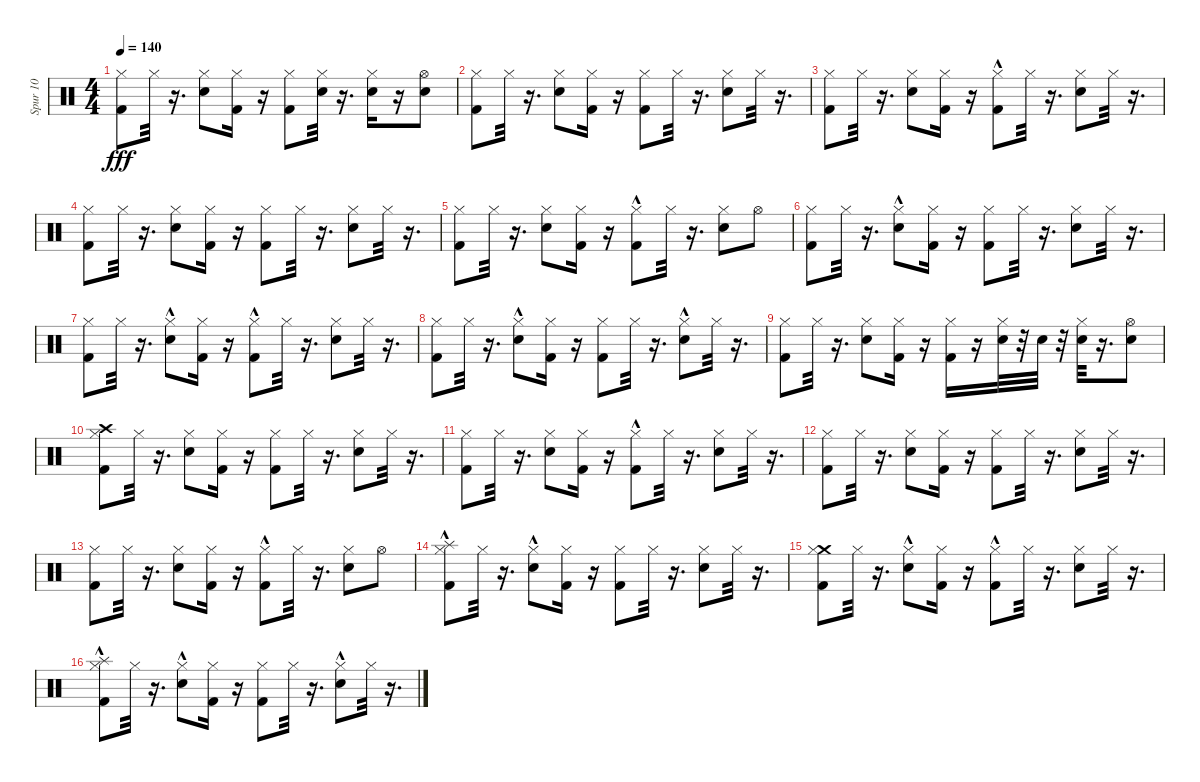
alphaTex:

\track ("Spur 10" "Spur 10") {instrument percussion}
\staff {score}
\articulation defaults
\ts (4 4)
\tempo 140
\clef neutral
\ks c
("Kick (hit) 2" "Hi-Hat (closed)").8{dy fff} "Hi-Hat (closed)".32 r.16{d} ("Snare (hit) 2" "Hi-Hat (closed)").8 ("Kick (hit) 2" "Hi-Hat (closed)").16 r.16 ("Kick (hit) 2" "Hi-Hat (closed)").8 ("Snare (hit) 2" "Hi-Hat (closed)").32 r.16{d} ("Snare (hit) 2" "Hi-Hat (closed)").16 r.16 ("Snare (hit) 2" "Hi-Hat (open)").8 |
("Kick (hit) 2" "Hi-Hat (closed)").8 "Hi-Hat (closed)".32 r.16{d} ("Snare (hit) 2" "Hi-Hat (closed)").8 ("Kick (hit) 2" "Hi-Hat (closed)").16 r.16 ("Kick (hit) 2" "Hi-Hat (closed)").8 "Hi-Hat (closed)".32 r.16{d} ("Snare (hit) 2" "Hi-Hat (closed)").8 "Hi-Hat (closed)".32 r.16{d} |
("Kick (hit) 2" "Hi-Hat (closed)").8 "Hi-Hat (closed)".32 r.16{d} ("Snare (hit) 2" "Hi-Hat (closed)").8 ("Kick (hit) 2" "Hi-Hat (closed)").16 r.16 ("Kick (hit) 2"{hac} "Hi-Hat (closed)").8 "Hi-Hat (closed)".32 r.16{d} ("Snare (hit) 2" "Hi-Hat (closed)").8 "Hi-Hat (closed)".32 r.16{d} |
("Kick (hit) 2" "Hi-Hat (closed)").8 "Hi-Hat (closed)".32 r.16{d} ("Snare (hit) 2" "Hi-Hat (closed)").8 ("Kick (hit) 2" "Hi-Hat (closed)").16 r.16 ("Kick (hit) 2" "Hi-Hat (closed)").8 "Hi-Hat (closed)".32 r.16{d} ("Snare (hit) 2" "Hi-Hat (closed)").8 "Hi-Hat (closed)".32 r.16{d} |
("Kick (hit) 2" "Hi-Hat (closed)").8 "Hi-Hat (closed)".32 r.16{d} ("Snare (hit) 2" "Hi-Hat (closed)").8 ("Kick (hit) 2" "Hi-Hat (closed)").16 r.16 ("Kick (hit) 2"{hac} "Hi-Hat (closed)").8 "Hi-Hat (closed)".32 r.16{d} ("Snare (hit) 2" "Hi-Hat (closed)").8 "Hi-Hat (open)".8 |
("Kick (hit) 2" "Hi-Hat (closed)").8 "Hi-Hat (closed)".32 r.16{d} ("Snare (hit) 2"{hac} "Hi-Hat (closed)").8 ("Kick (hit) 2" "Hi-Hat (closed)").16 r.16 ("Kick (hit) 2" "Hi-Hat (closed)").8 "Hi-Hat (closed)".32 r.16{d} ("Snare (hit) 2" "Hi-Hat (closed)").8 "Hi-Hat (closed)".32 r.16{d} |
("Kick (hit) 2" "Hi-Hat (closed)").8 "Hi-Hat (closed)".32 r.16{d} ("Snare (hit) 2"{hac} "Hi-Hat (closed)").8 ("Kick (hit) 2" "Hi-Hat (closed)").16 r.16 ("Kick (hit) 2"{hac} "Hi-Hat (closed)").8 "Hi-Hat (closed)".32 r.16{d} ("Snare (hit) 2" "Hi-Hat (closed)").8 "Hi-Hat (closed)".32 r.16{d} |
("Kick (hit) 2" "Hi-Hat (closed)").8 "Hi-Hat (closed)".32 r.16{d} ("Snare (hit) 2"{hac} "Hi-Hat (closed)").8 ("Kick (hit) 2" "Hi-Hat (closed)").16 r.16 ("Kick (hit) 2" "Hi-Hat (closed)").8 "Hi-Hat (closed)".32 r.16{d} ("Snare (hit) 2"{hac} "Hi-Hat (closed)").8 "Hi-Hat (closed)".32 r.16{d} |
("Kick (hit) 2" "Hi-Hat (closed)").8 "Hi-Hat (closed)".32 r.16{d} ("Snare (hit) 2" "Hi-Hat (closed)").8 ("Kick (hit) 2" "Hi-Hat (closed)").16 r.16 ("Kick (hit) 2" "Hi-Hat (closed)").16 r.16 ("Snare (hit) 2" "Hi-Hat (closed)").32 r.32 "Snare (hit) 2".32 r.32 ("Snare (hit) 2" "Hi-Hat (closed)").32 r.16{d} ("Snare (hit) 2" "Hi-Hat (open)").8 |
("Kick (hit) 2" "Hi-Hat (closed)" "Crash high (hit)").8{volume 8} "Hi-Hat (closed)".32 r.16{d} ("Snare (hit) 2" "Hi-Hat (closed)").8 ("Kick (hit) 2" "Hi-Hat (closed)").16 r.16 ("Kick (hit) 2" "Hi-Hat (closed)").8 "Hi-Hat (closed)".32 r.16{d} ("Snare (hit) 2" "Hi-Hat (closed)").8 "Hi-Hat (closed)".32 r.16{d} |
("Kick (hit) 2" "Hi-Hat (closed)").8 "Hi-Hat (closed)".32 r.16{d} ("Snare (hit) 2" "Hi-Hat (closed)").8 ("Kick (hit) 2" "Hi-Hat (closed)").16 r.16 ("Kick (hit) 2"{hac} "Hi-Hat (closed)").8 "Hi-Hat (closed)".32 r.16{d} ("Snare (hit) 2" "Hi-Hat (closed)").8 "Hi-Hat (closed)".32 r.16{d} |
("Kick (hit) 2" "Hi-Hat (closed)").8 "Hi-Hat (closed)".32 r.16{d} ("Snare (hit) 2" "Hi-Hat (closed)").8 ("Kick (hit) 2" "Hi-Hat (closed)").16 r.16 ("Kick (hit) 2" "Hi-Hat (closed)").8 "Hi-Hat (closed)".32 r.16{d} ("Snare (hit) 2" "Hi-Hat (closed)").8 "Hi-Hat (closed)".32 r.16{d} |
("Kick (hit) 2" "Hi-Hat (closed)").8 "Hi-Hat (closed)".32 r.16{d} ("Snare (hit) 2" "Hi-Hat (closed)").8 ("Kick (hit) 2" "Hi-Hat (closed)").16 r.16 ("Kick (hit) 2"{hac} "Hi-Hat (closed)").8 "Hi-Hat (closed)".32 r.16{d} ("Snare (hit) 2" "Hi-Hat (closed)").8 "Hi-Hat (open)".8 |
("Kick (hit) 2" "Splash (hit)"{hac} "Hi-Hat (closed)").8 "Hi-Hat (closed)".32 r.16{d} ("Snare (hit) 2"{hac} "Hi-Hat (closed)").8 ("Kick (hit) 2" "Hi-Hat (closed)").16 r.16 ("Kick (hit) 2" "Hi-Hat (closed)").8 "Hi-Hat (closed)".32 r.16{d} ("Snare (hit) 2" "Hi-Hat (closed)").8 "Hi-Hat (closed)".32 r.16{d} |
("Kick (hit) 2" "Crash medium (hit)" "Hi-Hat (closed)").8 "Hi-Hat (closed)".32 r.16{d} ("Snare (hit) 2"{hac} "Hi-Hat (closed)").8 ("Kick (hit) 2" "Hi-Hat (closed)").16 r.16 ("Kick (hit) 2"{hac} "Hi-Hat (closed)").8 "Hi-Hat (closed)".32 r.16{d} ("Snare (hit) 2" "Hi-Hat (closed)").8 "Hi-Hat (closed)".32 r.16{d} |
("Kick (hit) 2" "Splash (hit)"{hac} "Hi-Hat (closed)").8 "Hi-Hat (closed)".32 r.16{d} ("Snare (hit) 2"{hac} "Hi-Hat (closed)").8 ("Kick (hit) 2" "Hi-Hat (closed)").16 r.16 ("Kick (hit) 2" "Hi-Hat (closed)").8 "Hi-Hat (closed)".32 r.16{d} ("Snare (hit) 2"{hac} "Hi-Hat (closed)").8 "Hi-Hat (closed)".32 r.16{d}
